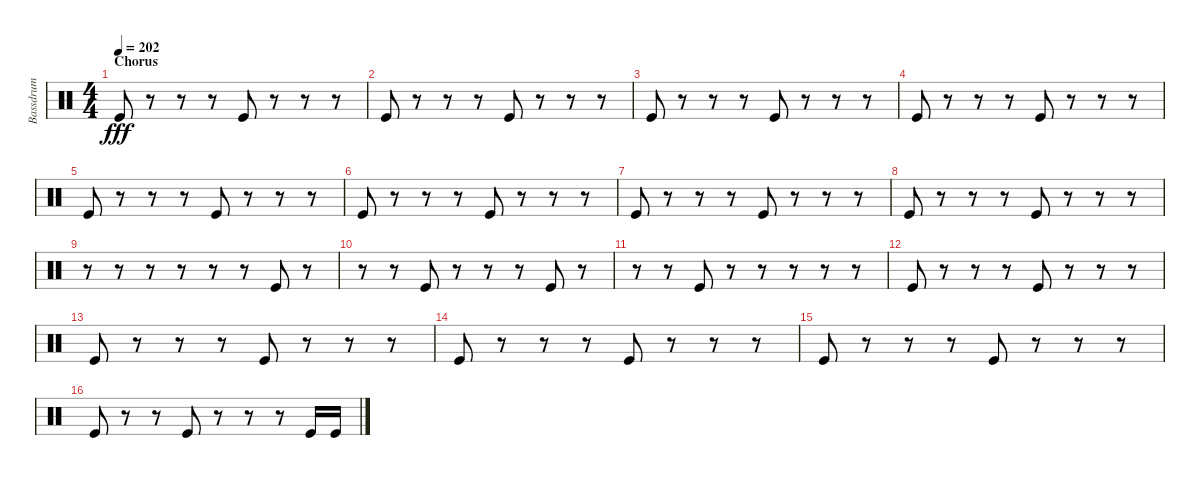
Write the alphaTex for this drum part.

\track ("Bassdrum" "Bassdrum") {instrument percussion}
\staff {score}
\articulation defaults
\ts (4 4)
\section ("" "Chorus")
\tempo 202
\clef neutral
\ks c "Kick (hit)".8{dy fff}
r.8 r.8 r.8 "Kick (hit)".8 r.8 r.8 r.8 |
"Kick (hit)".8 r.8 r.8 r.8 "Kick (hit)".8 r.8 r.8 r.8 |
"Kick (hit)".8 r.8 r.8 r.8 "Kick (hit)".8 r.8 r.8 r.8 |
"Kick (hit)".8 r.8 r.8 r.8 "Kick (hit)".8 r.8 r.8 r.8 |
"Kick (hit)".8 r.8 r.8 r.8 "Kick (hit)".8 r.8 r.8 r.8 |
"Kick (hit)".8 r.8 r.8 r.8 "Kick (hit)".8 r.8 r.8 r.8 |
"Kick (hit)".8 r.8 r.8 r.8 "Kick (hit)".8 r.8 r.8 r.8 |
"Kick (hit)".8 r.8 r.8 r.8 "Kick (hit)".8 r.8 r.8 r.8 |
r.8 r.8 r.8 r.8 r.8 r.8 "Kick (hit)".8 r.8 |
r.8 r.8 "Kick (hit)".8 r.8 r.8 r.8 "Kick (hit)".8 r.8 |
r.8 r.8 "Kick (hit)".8 r.8 r.8 r.8 r.8 r.8 |
"Kick (hit)".8 r.8 r.8 r.8 "Kick (hit)".8 r.8 r.8 r.8 |
"Kick (hit)".8 r.8 r.8 r.8 "Kick (hit)".8 r.8 r.8 r.8 |
"Kick (hit)".8 r.8 r.8 r.8 "Kick (hit)".8 r.8 r.8 r.8 |
"Kick (hit)".8 r.8 r.8 r.8 "Kick (hit)".8 r.8 r.8 r.8 |
"Kick (hit)".8 r.8 r.8 "Kick (hit)".8 r.8 r.8 r.8 "Kick (hit)".16 "Kick (hit)".16
